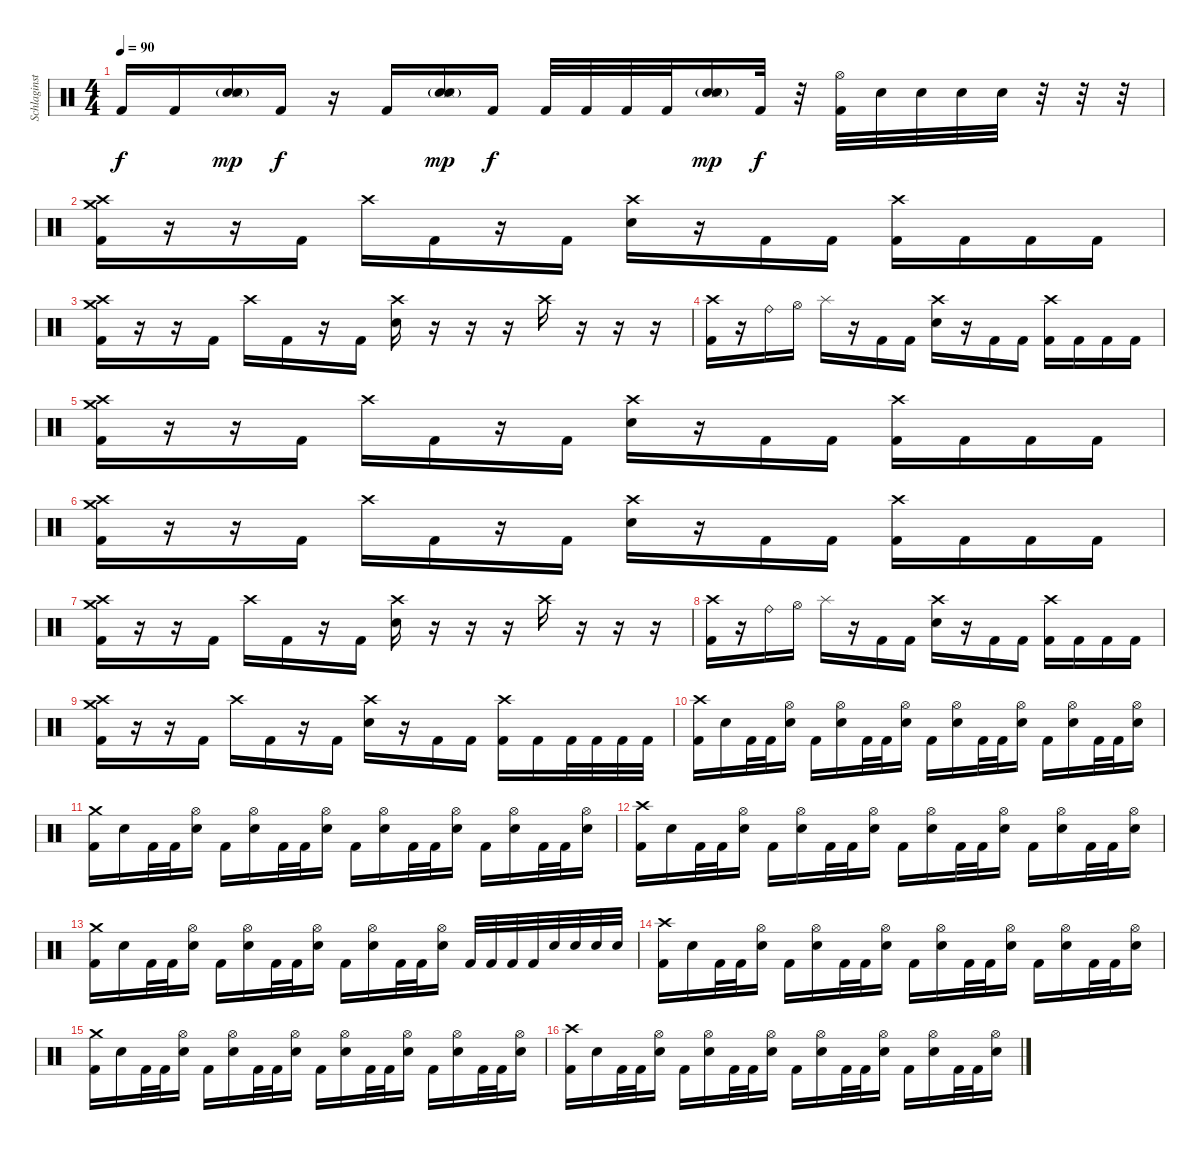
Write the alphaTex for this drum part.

\track ("Schlaginstrumente - Auswahl" "Schlaginst") {instrument percussion}
\staff {score}
\articulation defaults
\ts (4 4)
\tempo 90
\clef neutral
\ks c "Kick (hit) 2".16{dy f} "Kick (hit) 2".16
("Hand Clap (hit)" "Snare (side stick) 3"{g} "Electric Snare (hit)").16{dy mp} "Kick (hit) 2".16{dy f} r.16 "Kick (hit) 2".16 ("Hand Clap (hit)" "Snare (side stick) 3"{g} "Electric Snare (hit)").16{dy mp} "Kick (hit) 2".16{dy f} "Kick (hit) 2".32 "Kick (hit) 2".32 "Kick (hit) 2".32 "Kick (hit) 2".32 ("Hand Clap (hit)" "Snare (side stick) 3"{g} "Electric Snare (hit)").16{dy mp} "Kick (hit) 2".32{dy f} r.32 ("Hi-Hat (open)" "Kick (hit) 2").32 "Electric Snare (hit)".32 "Electric Snare (hit)".32 "Electric Snare (hit)".32 "Electric Snare (hit)".32 r.32 r.32 r.32 |
("Crash high (hit)" "Crash medium (hit)" "Kick (hit) 2").16 r.16 r.16 "Kick (hit) 2".16 "Crash high (hit)".16 "Kick (hit) 2".16 r.16 "Kick (hit) 2".16 ("Crash high (hit)" "Electric Snare (hit)").16 r.16 "Kick (hit) 2".16 "Kick (hit) 2".16 ("Crash high (hit)" "Kick (hit) 2").16 "Kick (hit) 2".16 "Kick (hit) 2".16 "Kick (hit) 2".16 |
("Crash high (hit)" "Crash medium (hit)" "Kick (hit) 2").16 r.16 r.16 "Kick (hit) 2".16 "Crash high (hit)".16 "Kick (hit) 2".16 r.16 "Kick (hit) 2".16 ("Crash high (hit)" "Electric Snare (hit)").16 r.16 r.16 r.16 "Crash high (hit)".16 r.16 r.16 r.16 |
("Crash high (hit)" "Kick (hit) 2").16 r.16 "Ride (bell)".16 "Hi-Hat (open)".16 "Splash (hit)".16 r.16 "Kick (hit) 2".16 "Kick (hit) 2".16 ("Crash high (hit)" "Electric Snare (hit)").16 r.16 "Kick (hit) 2".16 "Kick (hit) 2".16 ("Crash high (hit)" "Kick (hit) 2").16 "Kick (hit) 2".16 "Kick (hit) 2".16 "Kick (hit) 2".16 |
("Crash high (hit)" "Crash medium (hit)" "Kick (hit) 2").16 r.16 r.16 "Kick (hit) 2".16 "Crash high (hit)".16 "Kick (hit) 2".16 r.16 "Kick (hit) 2".16 ("Crash high (hit)" "Electric Snare (hit)").16 r.16 "Kick (hit) 2".16 "Kick (hit) 2".16 ("Crash high (hit)" "Kick (hit) 2").16 "Kick (hit) 2".16 "Kick (hit) 2".16 "Kick (hit) 2".16 |
("Crash high (hit)" "Crash medium (hit)" "Kick (hit) 2").16 r.16 r.16 "Kick (hit) 2".16 "Crash high (hit)".16 "Kick (hit) 2".16 r.16 "Kick (hit) 2".16 ("Crash high (hit)" "Electric Snare (hit)").16 r.16 "Kick (hit) 2".16 "Kick (hit) 2".16 ("Crash high (hit)" "Kick (hit) 2").16 "Kick (hit) 2".16 "Kick (hit) 2".16 "Kick (hit) 2".16 |
("Crash high (hit)" "Crash medium (hit)" "Kick (hit) 2").16 r.16 r.16 "Kick (hit) 2".16 "Crash high (hit)".16 "Kick (hit) 2".16 r.16 "Kick (hit) 2".16 ("Crash high (hit)" "Electric Snare (hit)").16 r.16 r.16 r.16 "Crash high (hit)".16 r.16 r.16 r.16 |
("Crash high (hit)" "Kick (hit) 2").16 r.16 "Ride (bell)".16 "Hi-Hat (open)".16 "Splash (hit)".16 r.16 "Kick (hit) 2".16 "Kick (hit) 2".16 ("Crash high (hit)" "Electric Snare (hit)").16 r.16 "Kick (hit) 2".16 "Kick (hit) 2".16 ("Crash high (hit)" "Kick (hit) 2").16 "Kick (hit) 2".16 "Kick (hit) 2".16 "Kick (hit) 2".16 |
("Crash high (hit)" "Crash medium (hit)" "Kick (hit) 2").16 r.16 r.16 "Kick (hit) 2".16 "Crash high (hit)".16 "Kick (hit) 2".16 r.16 "Kick (hit) 2".16 ("Crash high (hit)" "Electric Snare (hit)").16 r.16 "Kick (hit) 2".16 "Kick (hit) 2".16 ("Crash high (hit)" "Kick (hit) 2").16 "Kick (hit) 2".16 "Kick (hit) 2".32 "Kick (hit) 2".32 "Kick (hit) 2".32 "Kick (hit) 2".32 |
("Crash high (hit)" "Kick (hit) 2").16 "Electric Snare (hit)".16 "Kick (hit) 2".32 "Kick (hit) 2".32 ("Hi-Hat (open)" "Electric Snare (hit)").16 "Kick (hit) 2".16 ("Hi-Hat (open)" "Electric Snare (hit)").16 "Kick (hit) 2".32 "Kick (hit) 2".32 ("Hi-Hat (open)" "Electric Snare (hit)").16 "Kick (hit) 2".16 ("Hi-Hat (open)" "Electric Snare (hit)").16 "Kick (hit) 2".32 "Kick (hit) 2".32 ("Hi-Hat (open)" "Electric Snare (hit)").16 "Kick (hit) 2".16 ("Hi-Hat (open)" "Electric Snare (hit)").16 "Kick (hit) 2".32 "Kick (hit) 2".32 ("Hi-Hat (open)" "Electric Snare (hit)").16 |
("Crash medium (hit)" "Kick (hit) 2").16 "Electric Snare (hit)".16 "Kick (hit) 2".32 "Kick (hit) 2".32 ("Hi-Hat (open)" "Electric Snare (hit)").16 "Kick (hit) 2".16 ("Hi-Hat (open)" "Electric Snare (hit)").16 "Kick (hit) 2".32 "Kick (hit) 2".32 ("Hi-Hat (open)" "Electric Snare (hit)").16 "Kick (hit) 2".16 ("Hi-Hat (open)" "Electric Snare (hit)").16 "Kick (hit) 2".32 "Kick (hit) 2".32 ("Hi-Hat (open)" "Electric Snare (hit)").16 "Kick (hit) 2".16 ("Hi-Hat (open)" "Electric Snare (hit)").16 "Kick (hit) 2".32 "Kick (hit) 2".32 ("Hi-Hat (open)" "Electric Snare (hit)").16 |
("Crash high (hit)" "Kick (hit) 2").16 "Electric Snare (hit)".16 "Kick (hit) 2".32 "Kick (hit) 2".32 ("Hi-Hat (open)" "Electric Snare (hit)").16 "Kick (hit) 2".16 ("Hi-Hat (open)" "Electric Snare (hit)").16 "Kick (hit) 2".32 "Kick (hit) 2".32 ("Hi-Hat (open)" "Electric Snare (hit)").16 "Kick (hit) 2".16 ("Hi-Hat (open)" "Electric Snare (hit)").16 "Kick (hit) 2".32 "Kick (hit) 2".32 ("Hi-Hat (open)" "Electric Snare (hit)").16 "Kick (hit) 2".16 ("Hi-Hat (open)" "Electric Snare (hit)").16 "Kick (hit) 2".32 "Kick (hit) 2".32 ("Hi-Hat (open)" "Electric Snare (hit)").16 |
("Crash medium (hit)" "Kick (hit) 2").16 "Electric Snare (hit)".16 "Kick (hit) 2".32 "Kick (hit) 2".32 ("Hi-Hat (open)" "Electric Snare (hit)").16 "Kick (hit) 2".16 ("Hi-Hat (open)" "Electric Snare (hit)").16 "Kick (hit) 2".32 "Kick (hit) 2".32 ("Hi-Hat (open)" "Electric Snare (hit)").16 "Kick (hit) 2".16 ("Hi-Hat (open)" "Electric Snare (hit)").16 "Kick (hit) 2".32 "Kick (hit) 2".32 ("Hi-Hat (open)" "Electric Snare (hit)").16 "Kick (hit) 2".32 "Kick (hit) 2".32 "Kick (hit) 2".32 "Kick (hit) 2".32 "Electric Snare (hit)".32 "Electric Snare (hit)".32 "Electric Snare (hit)".32 "Electric Snare (hit)".32 |
("Crash high (hit)" "Kick (hit) 2").16 "Electric Snare (hit)".16 "Kick (hit) 2".32 "Kick (hit) 2".32 ("Hi-Hat (open)" "Electric Snare (hit)").16 "Kick (hit) 2".16 ("Hi-Hat (open)" "Electric Snare (hit)").16 "Kick (hit) 2".32 "Kick (hit) 2".32 ("Hi-Hat (open)" "Electric Snare (hit)").16 "Kick (hit) 2".16 ("Hi-Hat (open)" "Electric Snare (hit)").16 "Kick (hit) 2".32 "Kick (hit) 2".32 ("Hi-Hat (open)" "Electric Snare (hit)").16 "Kick (hit) 2".16 ("Hi-Hat (open)" "Electric Snare (hit)").16 "Kick (hit) 2".32 "Kick (hit) 2".32 ("Hi-Hat (open)" "Electric Snare (hit)").16 |
("Crash medium (hit)" "Kick (hit) 2").16 "Electric Snare (hit)".16 "Kick (hit) 2".32 "Kick (hit) 2".32 ("Hi-Hat (open)" "Electric Snare (hit)").16 "Kick (hit) 2".16 ("Hi-Hat (open)" "Electric Snare (hit)").16 "Kick (hit) 2".32 "Kick (hit) 2".32 ("Hi-Hat (open)" "Electric Snare (hit)").16 "Kick (hit) 2".16 ("Hi-Hat (open)" "Electric Snare (hit)").16 "Kick (hit) 2".32 "Kick (hit) 2".32 ("Hi-Hat (open)" "Electric Snare (hit)").16 "Kick (hit) 2".16 ("Hi-Hat (open)" "Electric Snare (hit)").16 "Kick (hit) 2".32 "Kick (hit) 2".32 ("Hi-Hat (open)" "Electric Snare (hit)").16 |
("Crash high (hit)" "Kick (hit) 2").16 "Electric Snare (hit)".16 "Kick (hit) 2".32 "Kick (hit) 2".32 ("Hi-Hat (open)" "Electric Snare (hit)").16 "Kick (hit) 2".16 ("Hi-Hat (open)" "Electric Snare (hit)").16 "Kick (hit) 2".32 "Kick (hit) 2".32 ("Hi-Hat (open)" "Electric Snare (hit)").16 "Kick (hit) 2".16 ("Hi-Hat (open)" "Electric Snare (hit)").16 "Kick (hit) 2".32 "Kick (hit) 2".32 ("Hi-Hat (open)" "Electric Snare (hit)").16 "Kick (hit) 2".16 ("Hi-Hat (open)" "Electric Snare (hit)").16 "Kick (hit) 2".32 "Kick (hit) 2".32 ("Hi-Hat (open)" "Electric Snare (hit)").16
